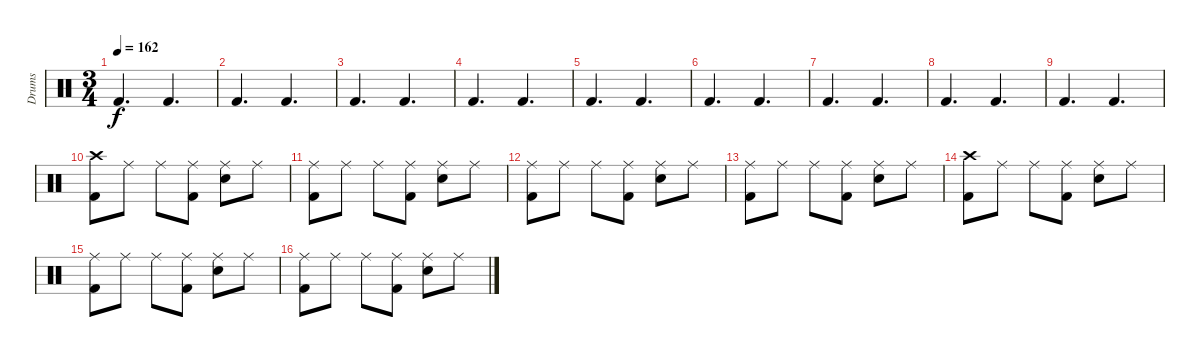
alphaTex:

\track ("Drums" "Drums") {instrument percussion}
\staff {score}
\articulation defaults
\ts (3 4)
\tempo 162
\clef neutral
\ks c "Kick (hit) 2".4{d dy f} "Kick (hit) 2".4{d}
|
"Kick (hit) 2".4{d} "Kick (hit) 2".4{d} |
"Kick (hit) 2".4{d} "Kick (hit) 2".4{d} |
"Kick (hit) 2".4{d} "Kick (hit) 2".4{d} |
"Kick (hit) 2".4{d} "Kick (hit) 2".4{d} |
"Kick (hit) 2".4{d} "Kick (hit) 2".4{d} |
"Kick (hit) 2".4{d} "Kick (hit) 2".4{d} |
"Kick (hit) 2".4{d} "Kick (hit) 2".4{d} |
"Kick (hit) 2".4{d} "Kick (hit) 2".4{d} |
("Crash high (hit)" "Kick (hit) 2").8 "Ride (middle)".8 "Ride (middle)".8 ("Ride (middle)" "Kick (hit) 2").8 ("Ride (middle)" "Snare (hit) 2").8 "Ride (middle)".8 |
("Ride (middle)" "Kick (hit) 2").8 "Ride (middle)".8 "Ride (middle)".8 ("Ride (middle)" "Kick (hit) 2").8 ("Ride (middle)" "Snare (hit) 2").8 "Ride (middle)".8 |
("Ride (middle)" "Kick (hit) 2").8 "Ride (middle)".8 "Ride (middle)".8 ("Ride (middle)" "Kick (hit) 2").8 ("Ride (middle)" "Snare (hit) 2").8 "Ride (middle)".8 |
("Ride (middle)" "Kick (hit) 2").8 "Ride (middle)".8 "Ride (middle)".8 ("Ride (middle)" "Kick (hit) 2").8 ("Ride (middle)" "Snare (hit) 2").8 "Ride (middle)".8 |
("Crash high (hit)" "Kick (hit) 2").8 "Ride (middle)".8 "Ride (middle)".8 ("Ride (middle)" "Kick (hit) 2").8 ("Ride (middle)" "Snare (hit) 2").8 "Ride (middle)".8 |
("Ride (middle)" "Kick (hit) 2").8 "Ride (middle)".8 "Ride (middle)".8 ("Ride (middle)" "Kick (hit) 2").8 ("Ride (middle)" "Snare (hit) 2").8 "Ride (middle)".8 |
("Ride (middle)" "Kick (hit) 2").8 "Ride (middle)".8 "Ride (middle)".8 ("Ride (middle)" "Kick (hit) 2").8 ("Ride (middle)" "Snare (hit) 2").8 "Ride (middle)".8
